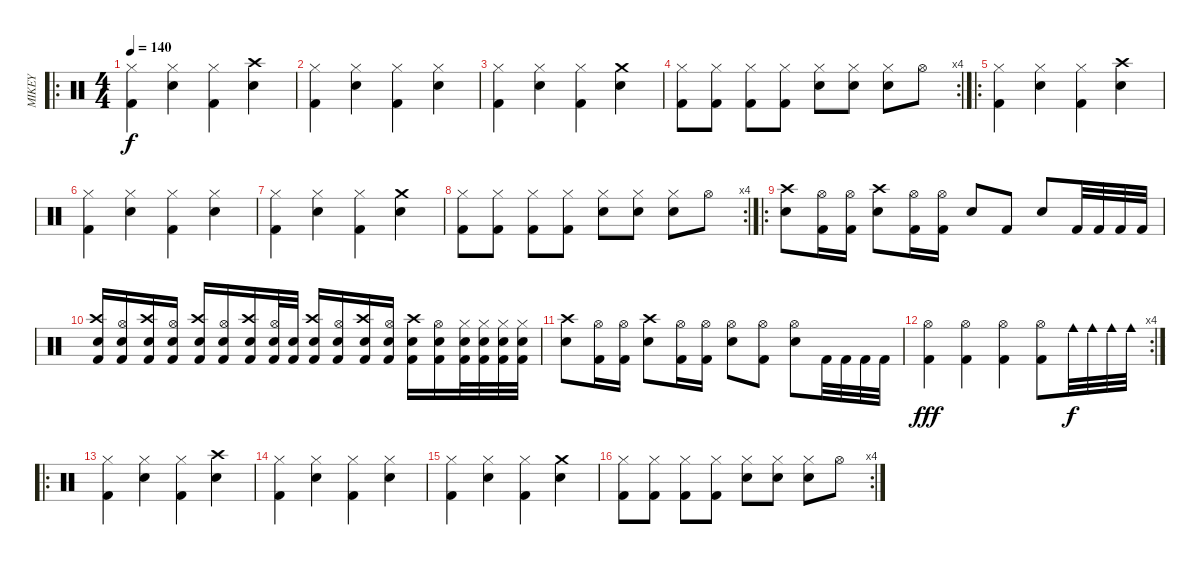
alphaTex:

\track ("MIKEY" "MIKEY") {instrument percussion}
\staff {score}
\articulation defaults
\ro
\ts (4 4)
\tempo 140
\clef neutral
\ks c
("Hi-Hat (closed)" "Kick (hit) 2").4{dy f} ("Hi-Hat (closed)" "Snare (hit) 2").4 ("Hi-Hat (closed)" "Kick (hit) 2").4 ("Crash high (hit)" "Snare (hit) 2").4 |
("Hi-Hat (closed)" "Kick (hit) 2").4 ("Hi-Hat (closed)" "Snare (hit) 2").4 ("Hi-Hat (closed)" "Kick (hit) 2").4 ("Hi-Hat (closed)" "Snare (hit) 2").4 |
("Hi-Hat (closed)" "Kick (hit) 2").4 ("Hi-Hat (closed)" "Snare (hit) 2").4 ("Hi-Hat (closed)" "Kick (hit) 2").4 ("Crash medium (hit)" "Snare (hit) 2").4 |
\rc 4
("Hi-Hat (closed)" "Kick (hit) 2").8 ("Hi-Hat (closed)" "Kick (hit) 2").8 ("Hi-Hat (closed)" "Kick (hit) 2").8 ("Hi-Hat (closed)" "Kick (hit) 2").8 ("Hi-Hat (closed)" "Snare (hit) 2").8 ("Hi-Hat (closed)" "Snare (hit) 2").8 ("Hi-Hat (closed)" "Snare (hit) 2").8 "Hi-Hat (open)".8 |
\ro
("Hi-Hat (closed)" "Kick (hit) 2").4 ("Hi-Hat (closed)" "Snare (hit) 2").4 ("Hi-Hat (closed)" "Kick (hit) 2").4 ("Crash high (hit)" "Snare (hit) 2").4 |
("Hi-Hat (closed)" "Kick (hit) 2").4 ("Hi-Hat (closed)" "Snare (hit) 2").4 ("Hi-Hat (closed)" "Kick (hit) 2").4 ("Hi-Hat (closed)" "Snare (hit) 2").4 |
("Hi-Hat (closed)" "Kick (hit) 2").4 ("Hi-Hat (closed)" "Snare (hit) 2").4 ("Hi-Hat (closed)" "Kick (hit) 2").4 ("Crash medium (hit)" "Snare (hit) 2").4 |
\rc 4
("Hi-Hat (closed)" "Kick (hit) 2").8 ("Hi-Hat (closed)" "Kick (hit) 2").8 ("Hi-Hat (closed)" "Kick (hit) 2").8 ("Hi-Hat (closed)" "Kick (hit) 2").8 ("Hi-Hat (closed)" "Snare (hit) 2").8 ("Hi-Hat (closed)" "Snare (hit) 2").8 ("Hi-Hat (closed)" "Snare (hit) 2").8 "Hi-Hat (open)".8 |
\ro
("Crash high (hit)" "Electric Snare (hit)").8 ("Hi-Hat (open)" "Kick (hit) 2").16 ("Hi-Hat (open)" "Kick (hit) 2").16 ("Crash high (hit)" "Electric Snare (hit)").8 ("Hi-Hat (open)" "Kick (hit) 2").16 ("Hi-Hat (open)" "Kick (hit) 2").16 "Electric Snare (hit)".8 "Kick (hit) 2".8 "Electric Snare (hit)".8 "Kick (hit) 2".32 "Kick (hit) 2".32 "Kick (hit) 2".32 "Kick (hit) 2".32 |
("Crash high (hit)" "Kick (hit) 2" "Electric Snare (hit)").16 ("Hi-Hat (open)" "Kick (hit) 2" "Electric Snare (hit)").16 ("Crash high (hit)" "Kick (hit) 2" "Electric Snare (hit)").16 ("Hi-Hat (open)" "Kick (hit) 2" "Electric Snare (hit)").16 ("Crash high (hit)" "Kick (hit) 2" "Electric Snare (hit)").16 ("Hi-Hat (open)" "Kick (hit) 2" "Electric Snare (hit)").16 ("Crash high (hit)" "Kick (hit) 2" "Electric Snare (hit)").16 ("Hi-Hat (open)" "Kick (hit) 2" "Electric Snare (hit)").32 ("Kick (hit) 2" "Electric Snare (hit)").32 ("Crash high (hit)" "Kick (hit) 2" "Electric Snare (hit)").16 ("Hi-Hat (open)" "Kick (hit) 2" "Electric Snare (hit)").16 ("Crash high (hit)" "Kick (hit) 2" "Electric Snare (hit)").16 ("Hi-Hat (open)" "Kick (hit) 2" "Electric Snare (hit)").16 ("Crash high (hit)" "Kick (hit) 2" "Electric Snare (hit)").16 ("Hi-Hat (open)" "Kick (hit) 2" "Electric Snare (hit)").16 ("Hi-Hat (closed)" "Kick (hit) 2" "Electric Snare (hit)").32 ("Hi-Hat (closed)" "Kick (hit) 2" "Electric Snare (hit)").32 ("Hi-Hat (closed)" "Kick (hit) 2" "Electric Snare (hit)").32 ("Hi-Hat (closed)" "Kick (hit) 2" "Electric Snare (hit)").32 |
("Crash high (hit)" "Electric Snare (hit)").8 ("Hi-Hat (open)" "Kick (hit) 2").16 ("Hi-Hat (open)" "Kick (hit) 2").16 ("Crash high (hit)" "Electric Snare (hit)").8 ("Hi-Hat (open)" "Kick (hit) 2").16 ("Hi-Hat (open)" "Kick (hit) 2").16 ("Hi-Hat (open)" "Electric Snare (hit)").8 ("Hi-Hat (open)" "Kick (hit) 2").8 ("Hi-Hat (open)" "Electric Snare (hit)").8 "Kick (hit) 2".32 "Kick (hit) 2".32 "Kick (hit) 2".32 "Kick (hit) 2".32 |
\rc 4
("Kick (hit) 2" "Hi-Hat (open)").4{dy fff} ("Kick (hit) 2" "Hi-Hat (open)").4 ("Kick (hit) 2" "Hi-Hat (open)").4 ("Kick (hit) 2" "Hi-Hat (open)").8 "Cowbell medium (hit)".32{dy f} "Cowbell medium (hit)".32 "Cowbell medium (hit)".32 "Cowbell medium (hit)".32 |
\ro
("Hi-Hat (closed)" "Kick (hit) 2").4 ("Hi-Hat (closed)" "Snare (hit) 2").4 ("Hi-Hat (closed)" "Kick (hit) 2").4 ("Crash high (hit)" "Snare (hit) 2").4 |
("Hi-Hat (closed)" "Kick (hit) 2").4 ("Hi-Hat (closed)" "Snare (hit) 2").4 ("Hi-Hat (closed)" "Kick (hit) 2").4 ("Hi-Hat (closed)" "Snare (hit) 2").4 |
("Hi-Hat (closed)" "Kick (hit) 2").4 ("Hi-Hat (closed)" "Snare (hit) 2").4 ("Hi-Hat (closed)" "Kick (hit) 2").4 ("Crash medium (hit)" "Snare (hit) 2").4 |
\rc 4
("Hi-Hat (closed)" "Kick (hit) 2").8 ("Hi-Hat (closed)" "Kick (hit) 2").8 ("Hi-Hat (closed)" "Kick (hit) 2").8 ("Hi-Hat (closed)" "Kick (hit) 2").8 ("Hi-Hat (closed)" "Snare (hit) 2").8 ("Hi-Hat (closed)" "Snare (hit) 2").8 ("Hi-Hat (closed)" "Snare (hit) 2").8 "Hi-Hat (open)".8
